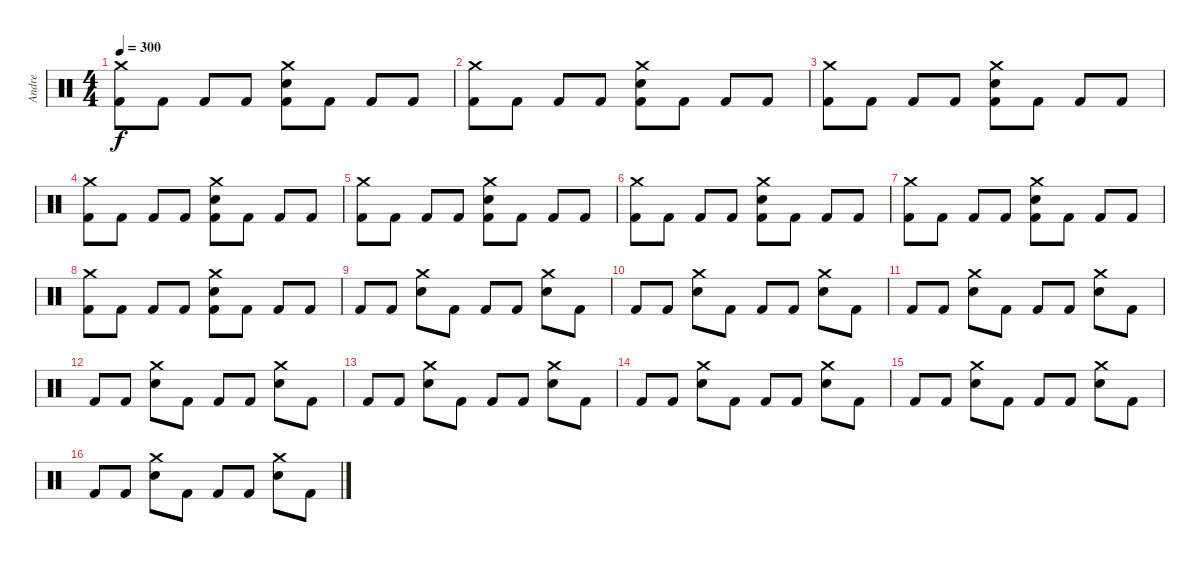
\track ("Andre" "Andre") {instrument percussion}
\staff {score}
\articulation defaults
\ts (4 4)
\tempo 300
\clef neutral
\ks c
("Crash medium (hit)" "Kick (hit) 2").8{dy f} "Kick (hit) 2".8 "Kick (hit) 2".8 "Kick (hit) 2".8 ("Crash medium (hit)" "Electric Snare (hit)" "Kick (hit) 2").8 "Kick (hit) 2".8 "Kick (hit) 2".8 "Kick (hit) 2".8 |
("Crash medium (hit)" "Kick (hit) 2").8 "Kick (hit) 2".8 "Kick (hit) 2".8 "Kick (hit) 2".8 ("Crash medium (hit)" "Electric Snare (hit)" "Kick (hit) 2").8 "Kick (hit) 2".8 "Kick (hit) 2".8 "Kick (hit) 2".8 |
("Crash medium (hit)" "Kick (hit) 2").8 "Kick (hit) 2".8 "Kick (hit) 2".8 "Kick (hit) 2".8 ("Crash medium (hit)" "Electric Snare (hit)" "Kick (hit) 2").8 "Kick (hit) 2".8 "Kick (hit) 2".8 "Kick (hit) 2".8 |
("Crash medium (hit)" "Kick (hit) 2").8 "Kick (hit) 2".8 "Kick (hit) 2".8 "Kick (hit) 2".8 ("Crash medium (hit)" "Electric Snare (hit)" "Kick (hit) 2").8 "Kick (hit) 2".8 "Kick (hit) 2".8 "Kick (hit) 2".8 |
("Crash medium (hit)" "Kick (hit) 2").8 "Kick (hit) 2".8 "Kick (hit) 2".8 "Kick (hit) 2".8 ("Crash medium (hit)" "Electric Snare (hit)" "Kick (hit) 2").8 "Kick (hit) 2".8 "Kick (hit) 2".8 "Kick (hit) 2".8 |
("Crash medium (hit)" "Kick (hit) 2").8 "Kick (hit) 2".8 "Kick (hit) 2".8 "Kick (hit) 2".8 ("Crash medium (hit)" "Electric Snare (hit)" "Kick (hit) 2").8 "Kick (hit) 2".8 "Kick (hit) 2".8 "Kick (hit) 2".8 |
("Crash medium (hit)" "Kick (hit) 2").8 "Kick (hit) 2".8 "Kick (hit) 2".8 "Kick (hit) 2".8 ("Crash medium (hit)" "Electric Snare (hit)" "Kick (hit) 2").8 "Kick (hit) 2".8 "Kick (hit) 2".8 "Kick (hit) 2".8 |
("Crash medium (hit)" "Kick (hit) 2").8 "Kick (hit) 2".8 "Kick (hit) 2".8 "Kick (hit) 2".8 ("Crash medium (hit)" "Electric Snare (hit)" "Kick (hit) 2").8 "Kick (hit) 2".8 "Kick (hit) 2".8 "Kick (hit) 2".8 |
"Kick (hit) 2".8 "Kick (hit) 2".8 ("Crash medium (hit)" "Electric Snare (hit)").8 "Kick (hit) 2".8 "Kick (hit) 2".8 "Kick (hit) 2".8 ("Crash medium (hit)" "Electric Snare (hit)").8 "Kick (hit) 2".8 |
"Kick (hit) 2".8 "Kick (hit) 2".8 ("Crash medium (hit)" "Electric Snare (hit)").8 "Kick (hit) 2".8 "Kick (hit) 2".8 "Kick (hit) 2".8 ("Crash medium (hit)" "Electric Snare (hit)").8 "Kick (hit) 2".8 |
"Kick (hit) 2".8 "Kick (hit) 2".8 ("Crash medium (hit)" "Electric Snare (hit)").8 "Kick (hit) 2".8 "Kick (hit) 2".8 "Kick (hit) 2".8 ("Crash medium (hit)" "Electric Snare (hit)").8 "Kick (hit) 2".8 |
"Kick (hit) 2".8 "Kick (hit) 2".8 ("Crash medium (hit)" "Electric Snare (hit)").8 "Kick (hit) 2".8 "Kick (hit) 2".8 "Kick (hit) 2".8 ("Crash medium (hit)" "Electric Snare (hit)").8 "Kick (hit) 2".8 |
"Kick (hit) 2".8 "Kick (hit) 2".8 ("Crash medium (hit)" "Electric Snare (hit)").8 "Kick (hit) 2".8 "Kick (hit) 2".8 "Kick (hit) 2".8 ("Crash medium (hit)" "Electric Snare (hit)").8 "Kick (hit) 2".8 |
"Kick (hit) 2".8 "Kick (hit) 2".8 ("Crash medium (hit)" "Electric Snare (hit)").8 "Kick (hit) 2".8 "Kick (hit) 2".8 "Kick (hit) 2".8 ("Crash medium (hit)" "Electric Snare (hit)").8 "Kick (hit) 2".8 |
"Kick (hit) 2".8 "Kick (hit) 2".8 ("Crash medium (hit)" "Electric Snare (hit)").8 "Kick (hit) 2".8 "Kick (hit) 2".8 "Kick (hit) 2".8 ("Crash medium (hit)" "Electric Snare (hit)").8 "Kick (hit) 2".8 |
"Kick (hit) 2".8 "Kick (hit) 2".8 ("Crash medium (hit)" "Electric Snare (hit)").8 "Kick (hit) 2".8 "Kick (hit) 2".8 "Kick (hit) 2".8 ("Crash medium (hit)" "Electric Snare (hit)").8 "Kick (hit) 2".8
